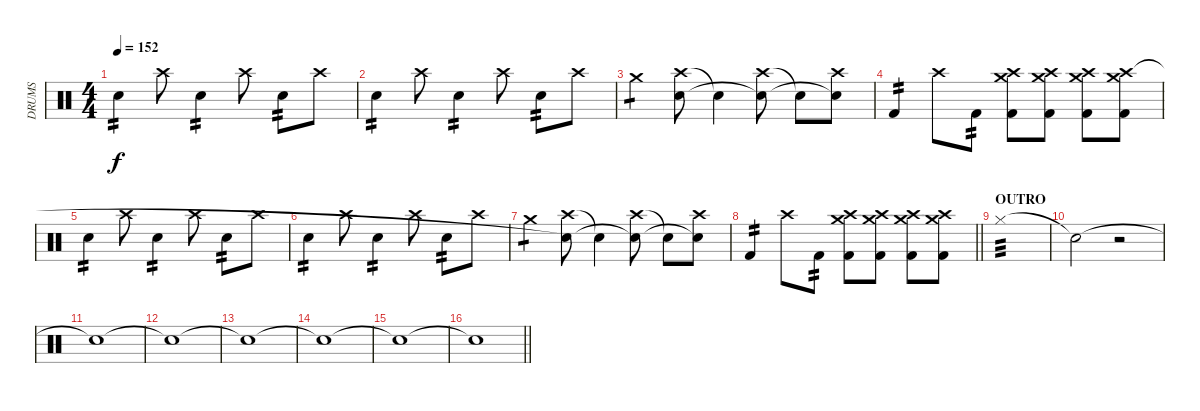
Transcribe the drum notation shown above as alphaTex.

\track ("DRUMS" "DRUMS") {instrument percussion}
\staff {score}
\articulation defaults
\ts (4 4)
\tempo 152
\clef neutral
\ks c "Electric Snare (hit)".4{tp 2 dy f} "Crash high (hit)".8 "Electric Snare (hit)".4{tp 2} "Crash high (hit)".8 "Electric Snare (hit)".8{tp 2} "Crash high (hit)".8
|
"Electric Snare (hit)".4{tp 2} "Crash high (hit)".8 "Electric Snare (hit)".4{tp 2} "Crash high (hit)".8 "Electric Snare (hit)".8{tp 2} "Crash high (hit)".8 |
"Crash medium (hit)".4{tp 1} ("Crash high (hit)" "Snare (hit)"{t}).8 "Electric Snare (hit)"{t}.4 ("Crash high (hit)" "Snare (hit)"{t}).8 "Electric Snare (hit)"{t}.8 ("Crash high (hit)" "Snare (hit)"{t}).8 |
"Kick (hit) 2".4{tp 2} "Crash high (hit)".8 "Kick (hit) 2".8{tp 2} ("Kick (hit) 2" "Crash high (hit)" "Crash medium (hit)").8 ("Kick (hit) 2" "Crash high (hit)" "Crash medium (hit)").8 ("Kick (hit) 2" "Crash high (hit)" "Crash medium (hit)").8 ("Kick (hit) 2" "Crash high (hit)" "Crash medium (hit)").8 |
"Electric Snare (hit)".4{tp 2} "Crash high (hit)".8 "Electric Snare (hit)".4{tp 2} "Crash high (hit)".8 "Electric Snare (hit)".8{tp 2} "Crash high (hit)".8 |
"Electric Snare (hit)".4{tp 2} "Crash high (hit)".8 "Electric Snare (hit)".4{tp 2} "Crash high (hit)".8 "Electric Snare (hit)".8{tp 2} "Crash high (hit)".8 |
"Crash medium (hit)".4{tp 1} ("Crash high (hit)" "Snare (hit)"{t}).8 "Electric Snare (hit)"{t}.4 ("Crash high (hit)" "Snare (hit)"{t}).8 "Electric Snare (hit)"{t}.8 ("Crash high (hit)" "Snare (hit)"{t}).8 |
\barLineRight lightlight "Kick (hit) 2".4{tp 2} "Crash high (hit)".8 "Kick (hit) 2".8{tp 2}
("Kick (hit) 2" "Crash high (hit)" "Crash medium (hit)").8 ("Kick (hit) 2" "Crash high (hit)" "Crash medium (hit)").8 ("Kick (hit) 2" "Crash high (hit)" "Crash medium (hit)").8 ("Kick (hit) 2" "Crash high (hit)" "Crash medium (hit)").8 |
\section ("" "OUTRO")
"Hi-Hat (closed)".1{tp 3} |
"Snare (hit)"{t}.2 r.2 |
"Snare (hit)"{t}.1 |
"Snare (hit)"{t}.1 |
"Snare (hit)"{t}.1 |
"Snare (hit)"{t}.1 |
"Snare (hit)"{t}.1 |
\barLineRight lightlight "Snare (hit)"{t}.1
